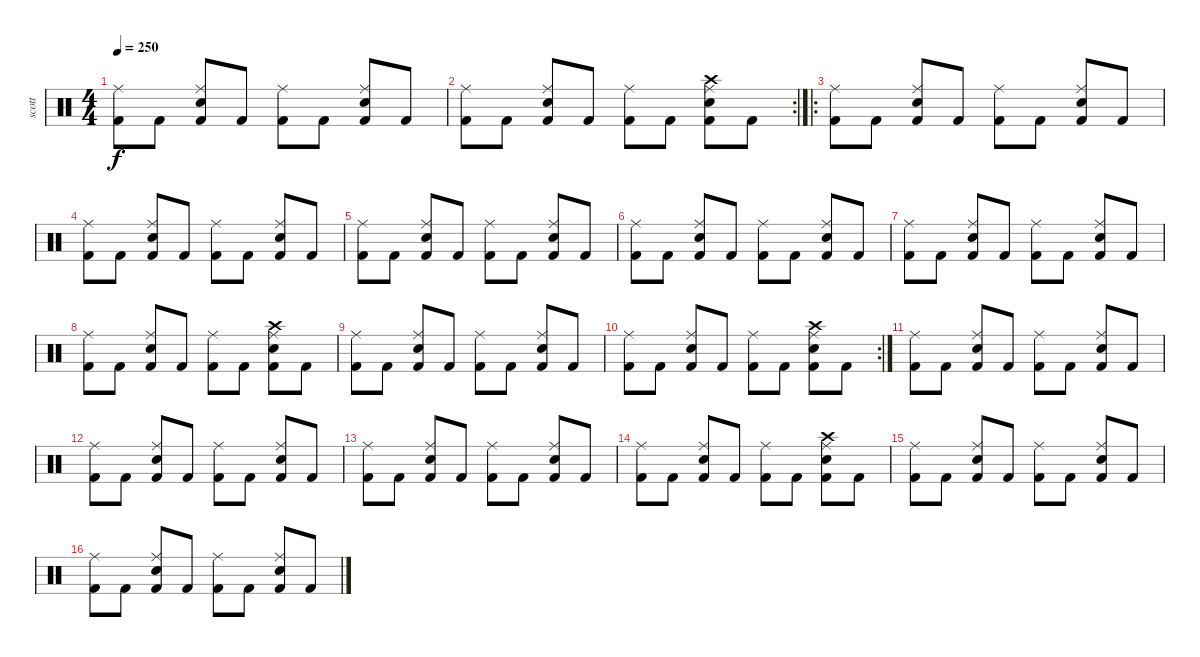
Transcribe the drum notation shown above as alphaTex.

\track ("scott" "scott") {instrument percussion bank 10}
\staff {score}
\articulation defaults
\ts (4 4)
\tempo 250
\clef neutral
\ks c
("Kick (hit) 2" "Ride (middle)").8{dy f} "Kick (hit) 2".8 ("Kick (hit) 2" "Snare (hit) 2" "Ride (middle)").8 "Kick (hit) 2".8 ("Kick (hit) 2" "Ride (middle)").8 "Kick (hit) 2".8 ("Kick (hit) 2" "Snare (hit) 2" "Ride (middle)").8 "Kick (hit) 2".8 |
\rc 2
("Kick (hit) 2" "Ride (middle)").8 "Kick (hit) 2".8 ("Kick (hit) 2" "Snare (hit) 2" "Ride (middle)").8 "Kick (hit) 2".8 ("Kick (hit) 2" "Ride (middle)").8 "Kick (hit) 2".8 ("Kick (hit) 2" "Snare (hit) 2" "Ride (middle)" "Crash high (hit)").8 "Kick (hit) 2".8 |
\ro
("Kick (hit) 2" "Ride (middle)").8 "Kick (hit) 2".8 ("Kick (hit) 2" "Snare (hit) 2" "Ride (middle)").8 "Kick (hit) 2".8 ("Kick (hit) 2" "Ride (middle)").8 "Kick (hit) 2".8 ("Kick (hit) 2" "Snare (hit) 2" "Ride (middle)").8 "Kick (hit) 2".8 |
("Kick (hit) 2" "Ride (middle)").8 "Kick (hit) 2".8 ("Kick (hit) 2" "Snare (hit) 2" "Ride (middle)").8 "Kick (hit) 2".8 ("Kick (hit) 2" "Ride (middle)").8 "Kick (hit) 2".8 ("Kick (hit) 2" "Snare (hit) 2" "Ride (middle)").8 "Kick (hit) 2".8 |
("Kick (hit) 2" "Ride (middle)").8 "Kick (hit) 2".8 ("Kick (hit) 2" "Snare (hit) 2" "Ride (middle)").8 "Kick (hit) 2".8 ("Kick (hit) 2" "Ride (middle)").8 "Kick (hit) 2".8 ("Kick (hit) 2" "Snare (hit) 2" "Ride (middle)").8 "Kick (hit) 2".8 |
("Kick (hit) 2" "Ride (middle)").8 "Kick (hit) 2".8 ("Kick (hit) 2" "Snare (hit) 2" "Ride (middle)").8 "Kick (hit) 2".8 ("Kick (hit) 2" "Ride (middle)").8 "Kick (hit) 2".8 ("Kick (hit) 2" "Snare (hit) 2" "Ride (middle)").8 "Kick (hit) 2".8 |
("Kick (hit) 2" "Ride (middle)").8 "Kick (hit) 2".8 ("Kick (hit) 2" "Snare (hit) 2" "Ride (middle)").8 "Kick (hit) 2".8 ("Kick (hit) 2" "Ride (middle)").8 "Kick (hit) 2".8 ("Kick (hit) 2" "Snare (hit) 2" "Ride (middle)").8 "Kick (hit) 2".8 |
("Kick (hit) 2" "Ride (middle)").8 "Kick (hit) 2".8 ("Kick (hit) 2" "Snare (hit) 2" "Ride (middle)").8 "Kick (hit) 2".8 ("Kick (hit) 2" "Ride (middle)").8 "Kick (hit) 2".8 ("Kick (hit) 2" "Snare (hit) 2" "Ride (middle)" "Crash high (hit)").8 "Kick (hit) 2".8 |
("Kick (hit) 2" "Ride (middle)").8 "Kick (hit) 2".8 ("Kick (hit) 2" "Snare (hit) 2" "Ride (middle)").8 "Kick (hit) 2".8 ("Kick (hit) 2" "Ride (middle)").8 "Kick (hit) 2".8 ("Kick (hit) 2" "Snare (hit) 2" "Ride (middle)").8 "Kick (hit) 2".8 |
\rc 2
("Kick (hit) 2" "Ride (middle)").8 "Kick (hit) 2".8 ("Kick (hit) 2" "Snare (hit) 2" "Ride (middle)").8 "Kick (hit) 2".8 ("Kick (hit) 2" "Ride (middle)").8 "Kick (hit) 2".8 ("Kick (hit) 2" "Snare (hit) 2" "Ride (middle)" "Crash high (hit)").8 "Kick (hit) 2".8 |
("Kick (hit) 2" "Ride (middle)").8 "Kick (hit) 2".8 ("Kick (hit) 2" "Snare (hit) 2" "Ride (middle)").8 "Kick (hit) 2".8 ("Kick (hit) 2" "Ride (middle)").8 "Kick (hit) 2".8 ("Kick (hit) 2" "Snare (hit) 2" "Ride (middle)").8 "Kick (hit) 2".8 |
("Kick (hit) 2" "Ride (middle)").8 "Kick (hit) 2".8 ("Kick (hit) 2" "Snare (hit) 2" "Ride (middle)").8 "Kick (hit) 2".8 ("Kick (hit) 2" "Ride (middle)").8 "Kick (hit) 2".8 ("Kick (hit) 2" "Snare (hit) 2" "Ride (middle)").8 "Kick (hit) 2".8 |
("Kick (hit) 2" "Ride (middle)").8 "Kick (hit) 2".8 ("Kick (hit) 2" "Snare (hit) 2" "Ride (middle)").8 "Kick (hit) 2".8 ("Kick (hit) 2" "Ride (middle)").8 "Kick (hit) 2".8 ("Kick (hit) 2" "Snare (hit) 2" "Ride (middle)").8 "Kick (hit) 2".8 |
("Kick (hit) 2" "Ride (middle)").8 "Kick (hit) 2".8 ("Kick (hit) 2" "Snare (hit) 2" "Ride (middle)").8 "Kick (hit) 2".8 ("Kick (hit) 2" "Ride (middle)").8 "Kick (hit) 2".8 ("Kick (hit) 2" "Snare (hit) 2" "Ride (middle)" "Crash high (hit)").8 "Kick (hit) 2".8 |
("Kick (hit) 2" "Ride (middle)").8 "Kick (hit) 2".8 ("Kick (hit) 2" "Snare (hit) 2" "Ride (middle)").8 "Kick (hit) 2".8 ("Kick (hit) 2" "Ride (middle)").8 "Kick (hit) 2".8 ("Kick (hit) 2" "Snare (hit) 2" "Ride (middle)").8 "Kick (hit) 2".8 |
("Kick (hit) 2" "Ride (middle)").8 "Kick (hit) 2".8 ("Kick (hit) 2" "Snare (hit) 2" "Ride (middle)").8 "Kick (hit) 2".8 ("Kick (hit) 2" "Ride (middle)").8 "Kick (hit) 2".8 ("Kick (hit) 2" "Snare (hit) 2" "Ride (middle)").8 "Kick (hit) 2".8
